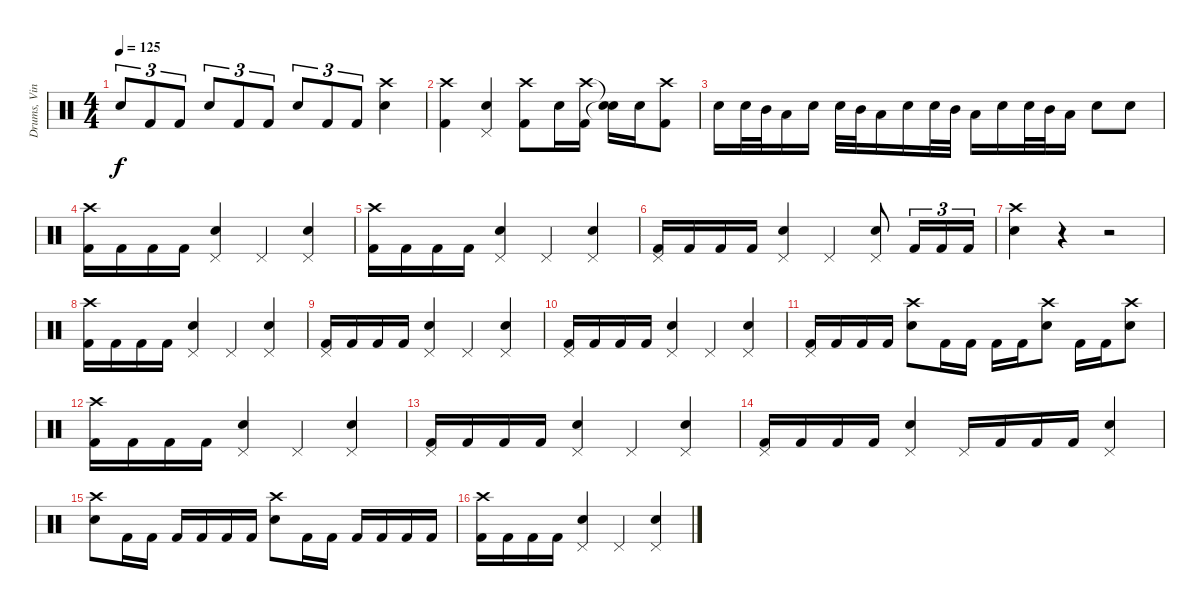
\track ("Drums, Vinnie" "Drums, Vin") {instrument percussion}
\staff {score}
\articulation defaults
\ts (4 4)
\tempo 125
\clef neutral
\ks c "Electric Snare (hit)".8{tu (3 2) dy f} "Kick (hit) 2".8{tu (3 2)} "Kick (hit) 2".8{tu (3 2)} "Electric Snare (hit)".8{tu (3 2)} "Kick (hit) 2".8{tu (3 2)} "Kick (hit) 2".8{tu (3 2)} "Electric Snare (hit)".8{tu (3 2)} "Kick (hit) 2".8{tu (3 2)} "Kick (hit) 2".8{tu (3 2)}
("Crash high (hit)" "Electric Snare (hit)").4 |
("Crash high (hit)" "Kick (hit) 2").4 ("Pedal Hi-Hat (hit)" "Electric Snare (hit)").4 ("Crash high (hit)" "Kick (hit) 2").8 "Electric Snare (hit)".16 ("Crash high (hit)" "Kick (hit) 2").16 ("Snare (hit)"{t} "Snare (hit)"{t}).16 "Electric Snare (hit)".16 ("Crash high (hit)" "Kick (hit) 2").8 |
"Electric Snare (hit)".16 "Electric Snare (hit)".32 "Mid Tom (hit)".32 "Low Tom (hit)".16 "Electric Snare (hit)".16 "Electric Snare (hit)".32 "Mid Tom (hit)".32 "Low Tom (hit)".16 "Electric Snare (hit)".16 "Electric Snare (hit)".32 "Mid Tom (hit)".32 "Low Tom (hit)".16 "Electric Snare (hit)".16 "Electric Snare (hit)".32 "Mid Tom (hit)".32 "Low Tom (hit)".16 "Electric Snare (hit)".8 "Electric Snare (hit)".8 |
("Crash high (hit)" "Kick (hit) 2").16 "Kick (hit) 2".16 "Kick (hit) 2".16 "Kick (hit) 2".16 ("Pedal Hi-Hat (hit)" "Electric Snare (hit)").4 "Pedal Hi-Hat (hit)".4 ("Pedal Hi-Hat (hit)" "Electric Snare (hit)").4 |
("Crash high (hit)" "Kick (hit) 2").16 "Kick (hit) 2".16 "Kick (hit) 2".16 "Kick (hit) 2".16 ("Pedal Hi-Hat (hit)" "Electric Snare (hit)").4 "Pedal Hi-Hat (hit)".4 ("Pedal Hi-Hat (hit)" "Electric Snare (hit)").4 |
("Pedal Hi-Hat (hit)" "Kick (hit) 2").16 "Kick (hit) 2".16 "Kick (hit) 2".16 "Kick (hit) 2".16 ("Pedal Hi-Hat (hit)" "Electric Snare (hit)").4 "Pedal Hi-Hat (hit)".4 ("Pedal Hi-Hat (hit)" "Electric Snare (hit)").8 "Kick (hit) 2".16{tu (3 2)} "Kick (hit) 2".16{tu (3 2)} "Kick (hit) 2".16{tu (3 2)} |
("Crash high (hit)" "Electric Snare (hit)").4 r.4 r.2 |
("Crash high (hit)" "Kick (hit) 2").16 "Kick (hit) 2".16 "Kick (hit) 2".16 "Kick (hit) 2".16 ("Pedal Hi-Hat (hit)" "Electric Snare (hit)").4 "Pedal Hi-Hat (hit)".4 ("Pedal Hi-Hat (hit)" "Electric Snare (hit)").4 |
("Pedal Hi-Hat (hit)" "Kick (hit) 2").16 "Kick (hit) 2".16 "Kick (hit) 2".16 "Kick (hit) 2".16 ("Pedal Hi-Hat (hit)" "Electric Snare (hit)").4 "Pedal Hi-Hat (hit)".4 ("Pedal Hi-Hat (hit)" "Electric Snare (hit)").4 |
("Pedal Hi-Hat (hit)" "Kick (hit) 2").16 "Kick (hit) 2".16 "Kick (hit) 2".16 "Kick (hit) 2".16 ("Pedal Hi-Hat (hit)" "Electric Snare (hit)").4 "Pedal Hi-Hat (hit)".4 ("Pedal Hi-Hat (hit)" "Electric Snare (hit)").4 |
("Pedal Hi-Hat (hit)" "Kick (hit) 2").16 "Kick (hit) 2".16 "Kick (hit) 2".16 "Kick (hit) 2".16 ("Crash high (hit)" "Electric Snare (hit)").8 "Kick (hit) 2".16 "Kick (hit) 2".16 "Kick (hit) 2".16 "Kick (hit) 2".16 ("Crash high (hit)" "Electric Snare (hit)").8 "Kick (hit) 2".16 "Kick (hit) 2".16 ("Crash high (hit)" "Electric Snare (hit)").8 |
("Crash high (hit)" "Kick (hit) 2").16 "Kick (hit) 2".16 "Kick (hit) 2".16 "Kick (hit) 2".16 ("Pedal Hi-Hat (hit)" "Electric Snare (hit)").4 "Pedal Hi-Hat (hit)".4 ("Pedal Hi-Hat (hit)" "Electric Snare (hit)").4 |
("Pedal Hi-Hat (hit)" "Kick (hit) 2").16 "Kick (hit) 2".16 "Kick (hit) 2".16 "Kick (hit) 2".16 ("Pedal Hi-Hat (hit)" "Electric Snare (hit)").4 "Pedal Hi-Hat (hit)".4 ("Pedal Hi-Hat (hit)" "Electric Snare (hit)").4 |
("Pedal Hi-Hat (hit)" "Kick (hit) 2").16 "Kick (hit) 2".16 "Kick (hit) 2".16 "Kick (hit) 2".16 ("Pedal Hi-Hat (hit)" "Electric Snare (hit)").4 "Pedal Hi-Hat (hit)".16 "Kick (hit) 2".16 "Kick (hit) 2".16 "Kick (hit) 2".16 ("Pedal Hi-Hat (hit)" "Electric Snare (hit)").4 |
("Crash high (hit)" "Electric Snare (hit)").8 "Kick (hit) 2".16 "Kick (hit) 2".16 "Kick (hit) 2".16 "Kick (hit) 2".16 "Kick (hit) 2".16 "Kick (hit) 2".16 ("Crash high (hit)" "Electric Snare (hit)").8 "Kick (hit) 2".16 "Kick (hit) 2".16 "Kick (hit) 2".16 "Kick (hit) 2".16 "Kick (hit) 2".16 "Kick (hit) 2".16 |
("Crash high (hit)" "Kick (hit) 2").16 "Kick (hit) 2".16 "Kick (hit) 2".16 "Kick (hit) 2".16 ("Pedal Hi-Hat (hit)" "Electric Snare (hit)").4 "Pedal Hi-Hat (hit)".4 ("Pedal Hi-Hat (hit)" "Electric Snare (hit)").4
